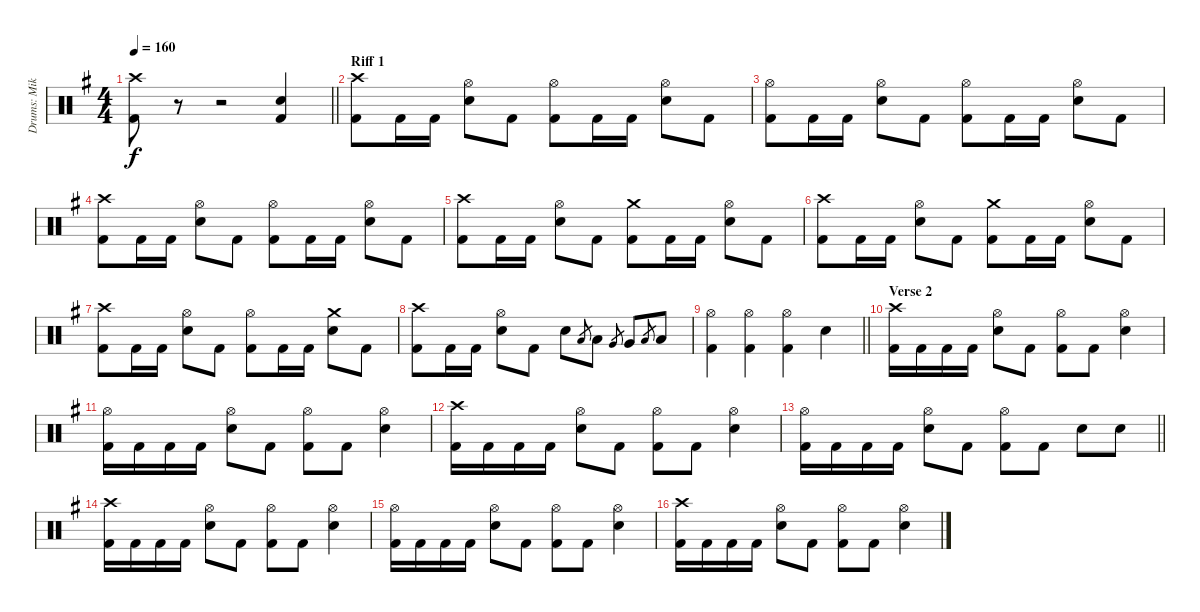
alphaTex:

\track ("Drums: Mikko Korsbäck" "Drums: Mik") {instrument percussion}
\staff {score}
\articulation defaults
\ts (4 4)
\tempo 160
\clef neutral
\barLineRight lightlight
\ks eminor
("Crash high (hit)" "Kick (hit) 2").8{dy f} r.8 r.2 ("Electric Snare (hit)" "Kick (hit) 2").4 |
\section ("" "Riff 1")
("Crash high (hit)" "Kick (hit) 2").8 "Kick (hit) 2".16 "Kick (hit) 2".16 ("Hi-Hat (open)" "Electric Snare (hit)").8 "Kick (hit) 2".8 ("Hi-Hat (open)" "Kick (hit) 2").8 "Kick (hit) 2".16 "Kick (hit) 2".16 ("Hi-Hat (open)" "Electric Snare (hit)").8 "Kick (hit) 2".8 |
("Hi-Hat (open)" "Kick (hit) 2").8 "Kick (hit) 2".16 "Kick (hit) 2".16 ("Hi-Hat (open)" "Electric Snare (hit)").8 "Kick (hit) 2".8 ("Hi-Hat (open)" "Kick (hit) 2").8 "Kick (hit) 2".16 "Kick (hit) 2".16 ("Hi-Hat (open)" "Electric Snare (hit)").8 "Kick (hit) 2".8 |
("Crash high (hit)" "Kick (hit) 2").8 "Kick (hit) 2".16 "Kick (hit) 2".16 ("Hi-Hat (open)" "Electric Snare (hit)").8 "Kick (hit) 2".8 ("Hi-Hat (open)" "Kick (hit) 2").8 "Kick (hit) 2".16 "Kick (hit) 2".16 ("Hi-Hat (open)" "Electric Snare (hit)").8 "Kick (hit) 2".8 |
("Crash high (hit)" "Kick (hit) 2").8 "Kick (hit) 2".16 "Kick (hit) 2".16 ("Hi-Hat (open)" "Electric Snare (hit)").8 "Kick (hit) 2".8 ("Crash medium (hit)" "Kick (hit) 2").8 "Kick (hit) 2".16 "Kick (hit) 2".16 ("Hi-Hat (open)" "Electric Snare (hit)").8 "Kick (hit) 2".8 |
("Crash high (hit)" "Kick (hit) 2").8 "Kick (hit) 2".16 "Kick (hit) 2".16 ("Hi-Hat (open)" "Electric Snare (hit)").8 "Kick (hit) 2".8 ("Crash medium (hit)" "Kick (hit) 2").8 "Kick (hit) 2".16 "Kick (hit) 2".16 ("Hi-Hat (open)" "Electric Snare (hit)").8 "Kick (hit) 2".8 |
("Crash high (hit)" "Kick (hit) 2").8 "Kick (hit) 2".16 "Kick (hit) 2".16 ("Hi-Hat (open)" "Electric Snare (hit)").8 "Kick (hit) 2".8 ("Hi-Hat (open)" "Kick (hit) 2").8 "Kick (hit) 2".16 "Kick (hit) 2".16 ("Crash medium (hit)" "Electric Snare (hit)").8 "Kick (hit) 2".8 |
("Crash high (hit)" "Kick (hit) 2").8 "Kick (hit) 2".16 "Kick (hit) 2".16 ("Hi-Hat (open)" "Electric Snare (hit)").8 "Kick (hit) 2".8 "Electric Snare (hit)".8 "Low Tom (hit)".8{gr} "Low Tom (hit)".8 "Very Low Tom (hit)".8{gr} "Very Low Tom (hit)".8 "Low Tom (hit)".8{gr} "Low Tom (hit)".8 |
\barLineRight lightlight
("Hi-Hat (open)" "Kick (hit) 2").4 ("Hi-Hat (open)" "Kick (hit) 2").4 ("Hi-Hat (open)" "Kick (hit) 2").4 "Electric Snare (hit)".4 |
\section ("" "Verse 2")
("Crash high (hit)" "Kick (hit) 2").16 "Kick (hit) 2".16 "Kick (hit) 2".16 "Kick (hit) 2".16 ("Hi-Hat (open)" "Electric Snare (hit)").8 "Kick (hit) 2".8 ("Hi-Hat (open)" "Kick (hit) 2").8 "Kick (hit) 2".8 ("Hi-Hat (open)" "Electric Snare (hit)").4 |
("Hi-Hat (open)" "Kick (hit) 2").16 "Kick (hit) 2".16 "Kick (hit) 2".16 "Kick (hit) 2".16 ("Hi-Hat (open)" "Electric Snare (hit)").8 "Kick (hit) 2".8 ("Hi-Hat (open)" "Kick (hit) 2").8 "Kick (hit) 2".8 ("Hi-Hat (open)" "Electric Snare (hit)").4 |
("Crash high (hit)" "Kick (hit) 2").16 "Kick (hit) 2".16 "Kick (hit) 2".16 "Kick (hit) 2".16 ("Hi-Hat (open)" "Electric Snare (hit)").8 "Kick (hit) 2".8 ("Hi-Hat (open)" "Kick (hit) 2").8 "Kick (hit) 2".8 ("Hi-Hat (open)" "Electric Snare (hit)").4 |
\barLineRight lightlight
("Hi-Hat (open)" "Kick (hit) 2").16 "Kick (hit) 2".16 "Kick (hit) 2".16 "Kick (hit) 2".16 ("Hi-Hat (open)" "Electric Snare (hit)").8 "Kick (hit) 2".8 ("Hi-Hat (open)" "Kick (hit) 2").8 "Kick (hit) 2".8 "Electric Snare (hit)".8 "Electric Snare (hit)".8 |
("Crash high (hit)" "Kick (hit) 2").16 "Kick (hit) 2".16 "Kick (hit) 2".16 "Kick (hit) 2".16 ("Hi-Hat (open)" "Electric Snare (hit)").8 "Kick (hit) 2".8 ("Hi-Hat (open)" "Kick (hit) 2").8 "Kick (hit) 2".8 ("Hi-Hat (open)" "Electric Snare (hit)").4 |
("Hi-Hat (open)" "Kick (hit) 2").16 "Kick (hit) 2".16 "Kick (hit) 2".16 "Kick (hit) 2".16 ("Hi-Hat (open)" "Electric Snare (hit)").8 "Kick (hit) 2".8 ("Hi-Hat (open)" "Kick (hit) 2").8 "Kick (hit) 2".8 ("Hi-Hat (open)" "Electric Snare (hit)").4 |
("Crash high (hit)" "Kick (hit) 2").16 "Kick (hit) 2".16 "Kick (hit) 2".16 "Kick (hit) 2".16 ("Hi-Hat (open)" "Electric Snare (hit)").8 "Kick (hit) 2".8 ("Hi-Hat (open)" "Kick (hit) 2").8 "Kick (hit) 2".8 ("Hi-Hat (open)" "Electric Snare (hit)").4
